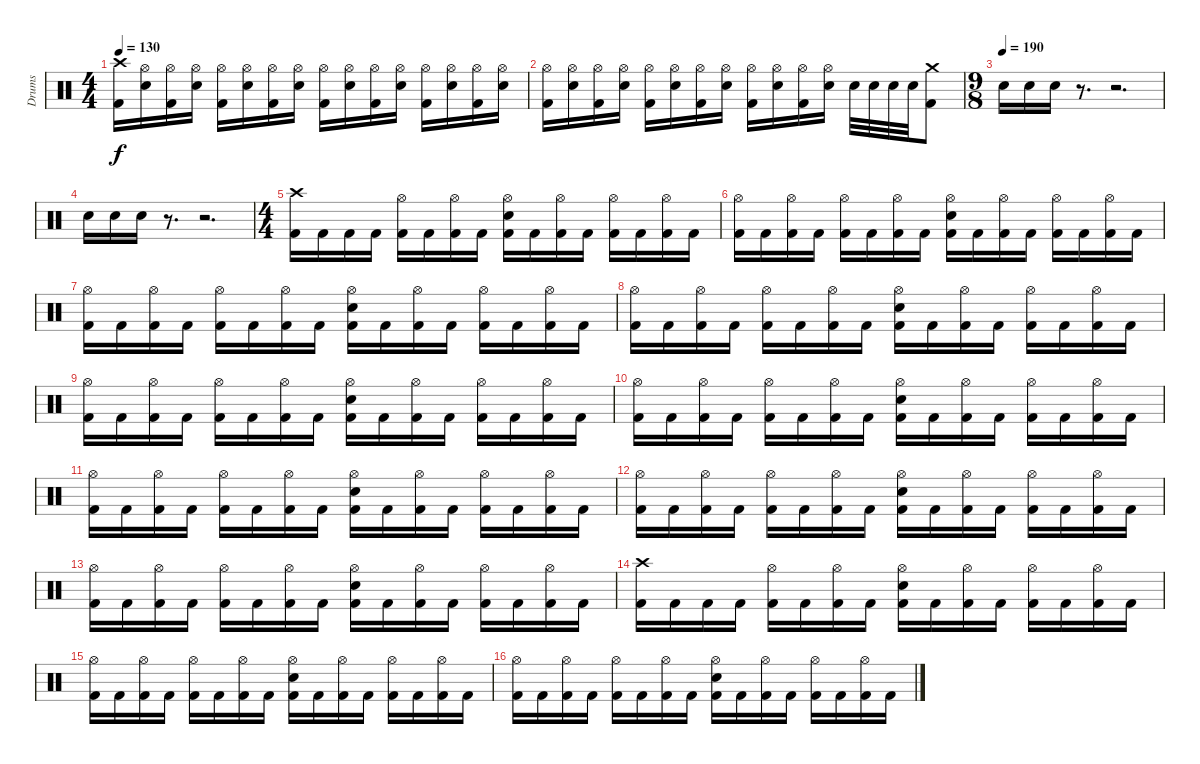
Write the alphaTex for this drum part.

\track ("Drums" "Drums") {instrument percussion}
\staff {score}
\articulation defaults
\ts (4 4)
\tempo 130
\clef neutral
\ks c
("Crash high (hit)" "Kick (hit) 2").16{dy f} ("Hi-Hat (open)" "Electric Snare (hit)").16 ("Hi-Hat (open)" "Kick (hit) 2").16 ("Hi-Hat (open)" "Electric Snare (hit)").16 ("Hi-Hat (open)" "Kick (hit) 2").16 ("Hi-Hat (open)" "Electric Snare (hit)").16 ("Hi-Hat (open)" "Kick (hit) 2").16 ("Hi-Hat (open)" "Electric Snare (hit)").16 ("Hi-Hat (open)" "Kick (hit) 2").16 ("Hi-Hat (open)" "Electric Snare (hit)").16 ("Hi-Hat (open)" "Kick (hit) 2").16 ("Hi-Hat (open)" "Electric Snare (hit)").16 ("Hi-Hat (open)" "Kick (hit) 2").16 ("Hi-Hat (open)" "Electric Snare (hit)").16 ("Hi-Hat (open)" "Kick (hit) 2").16 ("Hi-Hat (open)" "Electric Snare (hit)").16 |
("Hi-Hat (open)" "Kick (hit) 2").16 ("Hi-Hat (open)" "Electric Snare (hit)").16 ("Hi-Hat (open)" "Kick (hit) 2").16 ("Hi-Hat (open)" "Electric Snare (hit)").16 ("Hi-Hat (open)" "Kick (hit) 2").16 ("Hi-Hat (open)" "Electric Snare (hit)").16 ("Hi-Hat (open)" "Kick (hit) 2").16 ("Hi-Hat (open)" "Electric Snare (hit)").16 ("Hi-Hat (open)" "Kick (hit) 2").16 ("Hi-Hat (open)" "Electric Snare (hit)").16 ("Hi-Hat (open)" "Kick (hit) 2").16 ("Hi-Hat (open)" "Electric Snare (hit)").16 "Electric Snare (hit)".32 "Electric Snare (hit)".32 "Electric Snare (hit)".32 "Electric Snare (hit)".32 ("Crash medium (hit)" "Kick (hit) 2").8 |
\ts (9 8)
\tempo (190)
"Electric Snare (hit)".16 "Electric Snare (hit)".16 "Electric Snare (hit)".16 r.8{d} r.2{d} |
"Electric Snare (hit)".16 "Electric Snare (hit)".16 "Electric Snare (hit)".16 r.8{d} r.2{d} |
\ts (4 4)
("Crash high (hit)" "Kick (hit) 2").16 "Kick (hit) 2".16 "Kick (hit) 2".16 "Kick (hit) 2".16 ("Hi-Hat (open)" "Kick (hit) 2").16 "Kick (hit) 2".16 ("Hi-Hat (open)" "Kick (hit) 2").16 "Kick (hit) 2".16 ("Hi-Hat (open)" "Electric Snare (hit)" "Kick (hit) 2").16 "Kick (hit) 2".16 ("Hi-Hat (open)" "Kick (hit) 2").16 "Kick (hit) 2".16 ("Hi-Hat (open)" "Kick (hit) 2").16 "Kick (hit) 2".16 ("Hi-Hat (open)" "Kick (hit) 2").16 "Kick (hit) 2".16 |
("Hi-Hat (open)" "Kick (hit) 2").16 "Kick (hit) 2".16 ("Hi-Hat (open)" "Kick (hit) 2").16 "Kick (hit) 2".16 ("Hi-Hat (open)" "Kick (hit) 2").16 "Kick (hit) 2".16 ("Hi-Hat (open)" "Kick (hit) 2").16 "Kick (hit) 2".16 ("Hi-Hat (open)" "Electric Snare (hit)" "Kick (hit) 2").16 "Kick (hit) 2".16 ("Hi-Hat (open)" "Kick (hit) 2").16 "Kick (hit) 2".16 ("Hi-Hat (open)" "Kick (hit) 2").16 "Kick (hit) 2".16 ("Hi-Hat (open)" "Kick (hit) 2").16 "Kick (hit) 2".16 |
("Hi-Hat (open)" "Kick (hit) 2").16 "Kick (hit) 2".16 ("Hi-Hat (open)" "Kick (hit) 2").16 "Kick (hit) 2".16 ("Hi-Hat (open)" "Kick (hit) 2").16 "Kick (hit) 2".16 ("Hi-Hat (open)" "Kick (hit) 2").16 "Kick (hit) 2".16 ("Hi-Hat (open)" "Electric Snare (hit)" "Kick (hit) 2").16 "Kick (hit) 2".16 ("Hi-Hat (open)" "Kick (hit) 2").16 "Kick (hit) 2".16 ("Hi-Hat (open)" "Kick (hit) 2").16 "Kick (hit) 2".16 ("Hi-Hat (open)" "Kick (hit) 2").16 "Kick (hit) 2".16 |
("Hi-Hat (open)" "Kick (hit) 2").16 "Kick (hit) 2".16 ("Hi-Hat (open)" "Kick (hit) 2").16 "Kick (hit) 2".16 ("Hi-Hat (open)" "Kick (hit) 2").16 "Kick (hit) 2".16 ("Hi-Hat (open)" "Kick (hit) 2").16 "Kick (hit) 2".16 ("Hi-Hat (open)" "Electric Snare (hit)" "Kick (hit) 2").16 "Kick (hit) 2".16 ("Hi-Hat (open)" "Kick (hit) 2").16 "Kick (hit) 2".16 ("Hi-Hat (open)" "Kick (hit) 2").16 "Kick (hit) 2".16 ("Hi-Hat (open)" "Kick (hit) 2").16 "Kick (hit) 2".16 |
("Hi-Hat (open)" "Kick (hit) 2").16 "Kick (hit) 2".16 ("Hi-Hat (open)" "Kick (hit) 2").16 "Kick (hit) 2".16 ("Hi-Hat (open)" "Kick (hit) 2").16 "Kick (hit) 2".16 ("Hi-Hat (open)" "Kick (hit) 2").16 "Kick (hit) 2".16 ("Hi-Hat (open)" "Electric Snare (hit)" "Kick (hit) 2").16 "Kick (hit) 2".16 ("Hi-Hat (open)" "Kick (hit) 2").16 "Kick (hit) 2".16 ("Hi-Hat (open)" "Kick (hit) 2").16 "Kick (hit) 2".16 ("Hi-Hat (open)" "Kick (hit) 2").16 "Kick (hit) 2".16 |
("Hi-Hat (open)" "Kick (hit) 2").16 "Kick (hit) 2".16 ("Hi-Hat (open)" "Kick (hit) 2").16 "Kick (hit) 2".16 ("Hi-Hat (open)" "Kick (hit) 2").16 "Kick (hit) 2".16 ("Hi-Hat (open)" "Kick (hit) 2").16 "Kick (hit) 2".16 ("Hi-Hat (open)" "Electric Snare (hit)" "Kick (hit) 2").16 "Kick (hit) 2".16 ("Hi-Hat (open)" "Kick (hit) 2").16 "Kick (hit) 2".16 ("Hi-Hat (open)" "Kick (hit) 2").16 "Kick (hit) 2".16 ("Hi-Hat (open)" "Kick (hit) 2").16 "Kick (hit) 2".16 |
("Hi-Hat (open)" "Kick (hit) 2").16 "Kick (hit) 2".16 ("Hi-Hat (open)" "Kick (hit) 2").16 "Kick (hit) 2".16 ("Hi-Hat (open)" "Kick (hit) 2").16 "Kick (hit) 2".16 ("Hi-Hat (open)" "Kick (hit) 2").16 "Kick (hit) 2".16 ("Hi-Hat (open)" "Electric Snare (hit)" "Kick (hit) 2").16 "Kick (hit) 2".16 ("Hi-Hat (open)" "Kick (hit) 2").16 "Kick (hit) 2".16 ("Hi-Hat (open)" "Kick (hit) 2").16 "Kick (hit) 2".16 ("Hi-Hat (open)" "Kick (hit) 2").16 "Kick (hit) 2".16 |
("Hi-Hat (open)" "Kick (hit) 2").16 "Kick (hit) 2".16 ("Hi-Hat (open)" "Kick (hit) 2").16 "Kick (hit) 2".16 ("Hi-Hat (open)" "Kick (hit) 2").16 "Kick (hit) 2".16 ("Hi-Hat (open)" "Kick (hit) 2").16 "Kick (hit) 2".16 ("Hi-Hat (open)" "Electric Snare (hit)" "Kick (hit) 2").16 "Kick (hit) 2".16 ("Hi-Hat (open)" "Kick (hit) 2").16 "Kick (hit) 2".16 ("Hi-Hat (open)" "Kick (hit) 2").16 "Kick (hit) 2".16 ("Hi-Hat (open)" "Kick (hit) 2").16 "Kick (hit) 2".16 |
("Hi-Hat (open)" "Kick (hit) 2").16 "Kick (hit) 2".16 ("Hi-Hat (open)" "Kick (hit) 2").16 "Kick (hit) 2".16 ("Hi-Hat (open)" "Kick (hit) 2").16 "Kick (hit) 2".16 ("Hi-Hat (open)" "Kick (hit) 2").16 "Kick (hit) 2".16 ("Hi-Hat (open)" "Electric Snare (hit)" "Kick (hit) 2").16 "Kick (hit) 2".16 ("Hi-Hat (open)" "Kick (hit) 2").16 "Kick (hit) 2".16 ("Hi-Hat (open)" "Kick (hit) 2").16 "Kick (hit) 2".16 ("Hi-Hat (open)" "Kick (hit) 2").16 "Kick (hit) 2".16 |
("Crash high (hit)" "Kick (hit) 2").16 "Kick (hit) 2".16 "Kick (hit) 2".16 "Kick (hit) 2".16 ("Hi-Hat (open)" "Kick (hit) 2").16 "Kick (hit) 2".16 ("Hi-Hat (open)" "Kick (hit) 2").16 "Kick (hit) 2".16 ("Hi-Hat (open)" "Electric Snare (hit)" "Kick (hit) 2").16 "Kick (hit) 2".16 ("Hi-Hat (open)" "Kick (hit) 2").16 "Kick (hit) 2".16 ("Hi-Hat (open)" "Kick (hit) 2").16 "Kick (hit) 2".16 ("Hi-Hat (open)" "Kick (hit) 2").16 "Kick (hit) 2".16 |
("Hi-Hat (open)" "Kick (hit) 2").16 "Kick (hit) 2".16 ("Hi-Hat (open)" "Kick (hit) 2").16 "Kick (hit) 2".16 ("Hi-Hat (open)" "Kick (hit) 2").16 "Kick (hit) 2".16 ("Hi-Hat (open)" "Kick (hit) 2").16 "Kick (hit) 2".16 ("Hi-Hat (open)" "Electric Snare (hit)" "Kick (hit) 2").16 "Kick (hit) 2".16 ("Hi-Hat (open)" "Kick (hit) 2").16 "Kick (hit) 2".16 ("Hi-Hat (open)" "Kick (hit) 2").16 "Kick (hit) 2".16 ("Hi-Hat (open)" "Kick (hit) 2").16 "Kick (hit) 2".16 |
("Hi-Hat (open)" "Kick (hit) 2").16 "Kick (hit) 2".16 ("Hi-Hat (open)" "Kick (hit) 2").16 "Kick (hit) 2".16 ("Hi-Hat (open)" "Kick (hit) 2").16 "Kick (hit) 2".16 ("Hi-Hat (open)" "Kick (hit) 2").16 "Kick (hit) 2".16 ("Hi-Hat (open)" "Electric Snare (hit)" "Kick (hit) 2").16 "Kick (hit) 2".16 ("Hi-Hat (open)" "Kick (hit) 2").16 "Kick (hit) 2".16 ("Hi-Hat (open)" "Kick (hit) 2").16 "Kick (hit) 2".16 ("Hi-Hat (open)" "Kick (hit) 2").16 "Kick (hit) 2".16
